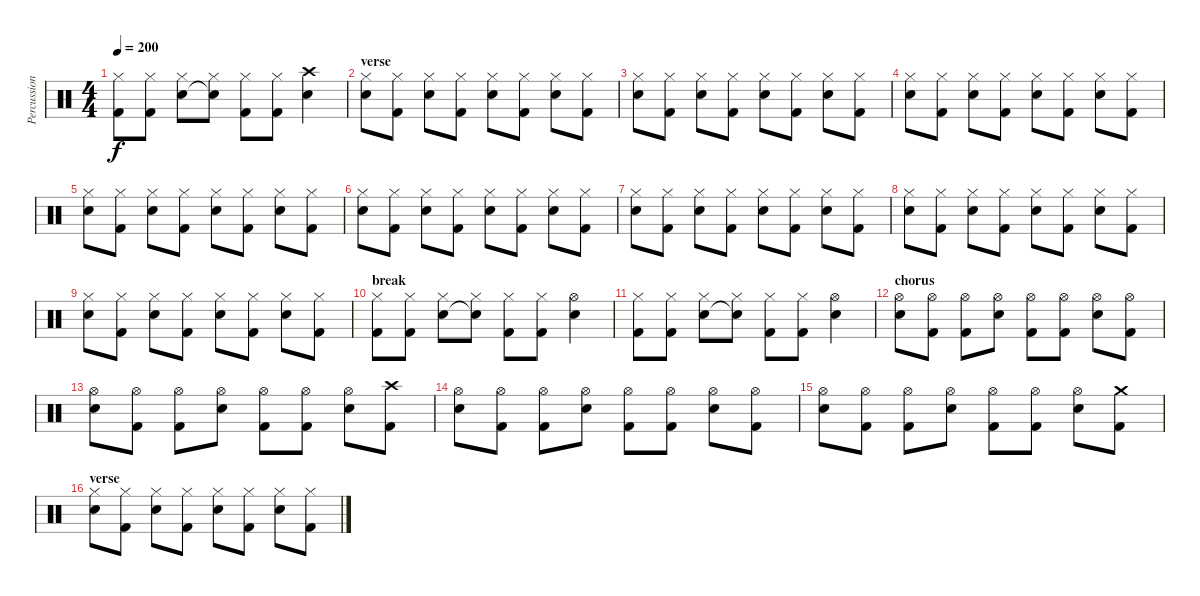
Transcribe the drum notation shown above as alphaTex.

\track ("Percussion" "Percussion") {instrument percussion}
\staff {score}
\articulation defaults
\ts (4 4)
\tempo 200
\clef neutral
\ks c
("Hi-Hat (closed)" "Kick (hit) 2").8{dy f} ("Hi-Hat (closed)" "Kick (hit) 2").8 ("Hi-Hat (closed)" "Electric Snare (hit)").8 ("Hi-Hat (closed)" "Snare (hit)"{t}).8 ("Hi-Hat (closed)" "Kick (hit) 2").8 ("Hi-Hat (closed)" "Kick (hit) 2").8 ("Crash high (hit)" "Electric Snare (hit)").4 |
\section ("" "verse")
("Hi-Hat (closed)" "Electric Snare (hit)").8 ("Hi-Hat (closed)" "Kick (hit) 2").8 ("Hi-Hat (closed)" "Electric Snare (hit)").8 ("Hi-Hat (closed)" "Kick (hit) 2").8 ("Hi-Hat (closed)" "Electric Snare (hit)").8 ("Hi-Hat (closed)" "Kick (hit) 2").8 ("Hi-Hat (closed)" "Electric Snare (hit)").8 ("Hi-Hat (closed)" "Kick (hit) 2").8 |
("Hi-Hat (closed)" "Electric Snare (hit)").8 ("Hi-Hat (closed)" "Kick (hit) 2").8 ("Hi-Hat (closed)" "Electric Snare (hit)").8 ("Hi-Hat (closed)" "Kick (hit) 2").8 ("Hi-Hat (closed)" "Electric Snare (hit)").8 ("Hi-Hat (closed)" "Kick (hit) 2").8 ("Hi-Hat (closed)" "Electric Snare (hit)").8 ("Hi-Hat (closed)" "Kick (hit) 2").8 |
("Hi-Hat (closed)" "Electric Snare (hit)").8 ("Hi-Hat (closed)" "Kick (hit) 2").8 ("Hi-Hat (closed)" "Electric Snare (hit)").8 ("Hi-Hat (closed)" "Kick (hit) 2").8 ("Hi-Hat (closed)" "Electric Snare (hit)").8 ("Hi-Hat (closed)" "Kick (hit) 2").8 ("Hi-Hat (closed)" "Electric Snare (hit)").8 ("Hi-Hat (closed)" "Kick (hit) 2").8 |
("Hi-Hat (closed)" "Electric Snare (hit)").8 ("Hi-Hat (closed)" "Kick (hit) 2").8 ("Hi-Hat (closed)" "Electric Snare (hit)").8 ("Hi-Hat (closed)" "Kick (hit) 2").8 ("Hi-Hat (closed)" "Electric Snare (hit)").8 ("Hi-Hat (closed)" "Kick (hit) 2").8 ("Hi-Hat (closed)" "Electric Snare (hit)").8 ("Hi-Hat (closed)" "Kick (hit) 2").8 |
("Hi-Hat (closed)" "Electric Snare (hit)").8 ("Hi-Hat (closed)" "Kick (hit) 2").8 ("Hi-Hat (closed)" "Electric Snare (hit)").8 ("Hi-Hat (closed)" "Kick (hit) 2").8 ("Hi-Hat (closed)" "Electric Snare (hit)").8 ("Hi-Hat (closed)" "Kick (hit) 2").8 ("Hi-Hat (closed)" "Electric Snare (hit)").8 ("Hi-Hat (closed)" "Kick (hit) 2").8 |
("Hi-Hat (closed)" "Electric Snare (hit)").8 ("Hi-Hat (closed)" "Kick (hit) 2").8 ("Hi-Hat (closed)" "Electric Snare (hit)").8 ("Hi-Hat (closed)" "Kick (hit) 2").8 ("Hi-Hat (closed)" "Electric Snare (hit)").8 ("Hi-Hat (closed)" "Kick (hit) 2").8 ("Hi-Hat (closed)" "Electric Snare (hit)").8 ("Hi-Hat (closed)" "Kick (hit) 2").8 |
("Hi-Hat (closed)" "Electric Snare (hit)").8 ("Hi-Hat (closed)" "Kick (hit) 2").8 ("Hi-Hat (closed)" "Electric Snare (hit)").8 ("Hi-Hat (closed)" "Kick (hit) 2").8 ("Hi-Hat (closed)" "Electric Snare (hit)").8 ("Hi-Hat (closed)" "Kick (hit) 2").8 ("Hi-Hat (closed)" "Electric Snare (hit)").8 ("Hi-Hat (closed)" "Kick (hit) 2").8 |
("Hi-Hat (closed)" "Electric Snare (hit)").8 ("Hi-Hat (closed)" "Kick (hit) 2").8 ("Hi-Hat (closed)" "Electric Snare (hit)").8 ("Hi-Hat (closed)" "Kick (hit) 2").8 ("Hi-Hat (closed)" "Electric Snare (hit)").8 ("Hi-Hat (closed)" "Kick (hit) 2").8 ("Hi-Hat (closed)" "Electric Snare (hit)").8 ("Hi-Hat (closed)" "Kick (hit) 2").8 |
\section ("" "break")
("Hi-Hat (closed)" "Kick (hit) 2").8 ("Hi-Hat (closed)" "Kick (hit) 2").8 ("Hi-Hat (closed)" "Electric Snare (hit)").8 ("Hi-Hat (closed)" "Snare (hit)"{t}).8 ("Hi-Hat (closed)" "Kick (hit) 2").8 ("Hi-Hat (closed)" "Kick (hit) 2").8 ("Hi-Hat (open)" "Electric Snare (hit)").4 |
("Hi-Hat (closed)" "Kick (hit) 2").8 ("Hi-Hat (closed)" "Kick (hit) 2").8 ("Hi-Hat (closed)" "Electric Snare (hit)").8 ("Hi-Hat (closed)" "Snare (hit)"{t}).8 ("Hi-Hat (closed)" "Kick (hit) 2").8 ("Hi-Hat (closed)" "Kick (hit) 2").8 ("Hi-Hat (open)" "Electric Snare (hit)").4 |
\section ("" "chorus")
("Hi-Hat (open)" "Electric Snare (hit)").8 ("Hi-Hat (open)" "Kick (hit) 2").8 ("Hi-Hat (open)" "Kick (hit) 2").8 ("Hi-Hat (open)" "Electric Snare (hit)").8 ("Hi-Hat (open)" "Kick (hit) 2").8 ("Hi-Hat (open)" "Kick (hit) 2").8 ("Hi-Hat (open)" "Electric Snare (hit)").8 ("Hi-Hat (open)" "Kick (hit) 2").8 |
("Hi-Hat (open)" "Electric Snare (hit)").8 ("Hi-Hat (open)" "Kick (hit) 2").8 ("Hi-Hat (open)" "Kick (hit) 2").8 ("Hi-Hat (open)" "Electric Snare (hit)").8 ("Hi-Hat (open)" "Kick (hit) 2").8 ("Hi-Hat (open)" "Kick (hit) 2").8 ("Hi-Hat (open)" "Electric Snare (hit)").8 ("Crash high (hit)" "Kick (hit) 2").8 |
("Hi-Hat (open)" "Electric Snare (hit)").8 ("Hi-Hat (open)" "Kick (hit) 2").8 ("Hi-Hat (open)" "Kick (hit) 2").8 ("Hi-Hat (open)" "Electric Snare (hit)").8 ("Hi-Hat (open)" "Kick (hit) 2").8 ("Hi-Hat (open)" "Kick (hit) 2").8 ("Hi-Hat (open)" "Electric Snare (hit)").8 ("Hi-Hat (open)" "Kick (hit) 2").8 |
("Hi-Hat (open)" "Electric Snare (hit)").8 ("Hi-Hat (open)" "Kick (hit) 2").8 ("Hi-Hat (open)" "Kick (hit) 2").8 ("Hi-Hat (open)" "Electric Snare (hit)").8 ("Hi-Hat (open)" "Kick (hit) 2").8 ("Hi-Hat (open)" "Kick (hit) 2").8 ("Hi-Hat (open)" "Electric Snare (hit)").8 ("Crash medium (hit)" "Kick (hit) 2").8 |
\section ("" "verse")
("Hi-Hat (closed)" "Electric Snare (hit)").8 ("Hi-Hat (closed)" "Kick (hit) 2").8 ("Hi-Hat (closed)" "Electric Snare (hit)").8 ("Hi-Hat (closed)" "Kick (hit) 2").8 ("Hi-Hat (closed)" "Electric Snare (hit)").8 ("Hi-Hat (closed)" "Kick (hit) 2").8 ("Hi-Hat (closed)" "Electric Snare (hit)").8 ("Hi-Hat (closed)" "Kick (hit) 2").8
